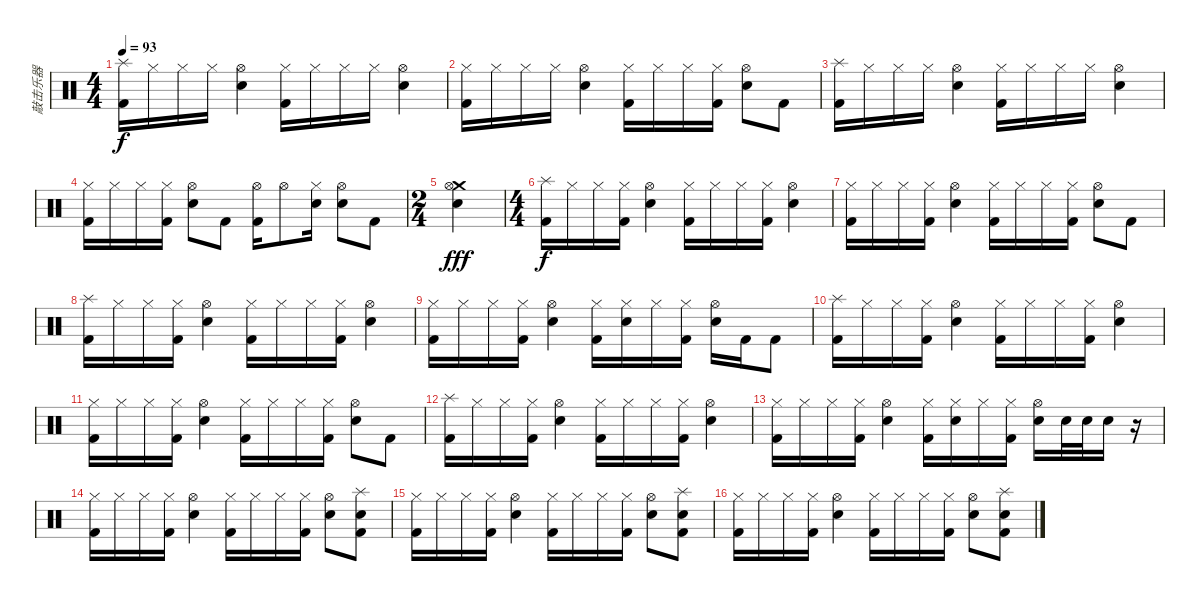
\track ("敲击乐器" "敲击乐器") {instrument percussion}
\staff {score}
\articulation defaults
\ts (4 4)
\tempo 93
\clef neutral
\ks c
("Splash (hit)" "Kick (hit) 2").16{dy f} "Hi-Hat (closed)".16 "Hi-Hat (closed)".16 "Hi-Hat (closed)".16 ("Hi-Hat (open)" "Metronome (bell)").4 ("Hi-Hat (closed)" "Kick (hit) 2").16 "Hi-Hat (closed)".16 "Hi-Hat (closed)".16 "Hi-Hat (closed)".16 ("Hi-Hat (open)" "Metronome (bell)").4 |
("Hi-Hat (closed)" "Kick (hit) 2").16 "Hi-Hat (closed)".16 "Hi-Hat (closed)".16 "Hi-Hat (closed)".16 ("Hi-Hat (open)" "Metronome (bell)").4 ("Hi-Hat (closed)" "Kick (hit) 2").16 "Hi-Hat (closed)".16 "Hi-Hat (closed)".16 ("Hi-Hat (closed)" "Kick (hit) 2").16 ("Hi-Hat (open)" "Metronome (bell)").8 "Kick (hit) 2".8 |
("Splash (hit)" "Kick (hit) 2").16 "Hi-Hat (closed)".16 "Hi-Hat (closed)".16 "Hi-Hat (closed)".16 ("Hi-Hat (open)" "Metronome (bell)").4 ("Hi-Hat (closed)" "Kick (hit) 2").16 "Hi-Hat (closed)".16 "Hi-Hat (closed)".16 "Hi-Hat (closed)".16 ("Hi-Hat (open)" "Metronome (bell)").4 |
("Hi-Hat (closed)" "Kick (hit) 2").16 "Hi-Hat (closed)".16 "Hi-Hat (closed)".16 ("Hi-Hat (closed)" "Kick (hit) 2").16 ("Hi-Hat (open)" "Metronome (bell)").8 "Kick (hit) 2".8 ("Hi-Hat (open)" "Kick (hit) 2").16 "Hi-Hat (open)".8 ("Hi-Hat (closed)" "Metronome (bell)").16 ("Hi-Hat (open)" "Metronome (bell)").8 "Kick (hit) 2".8 |
\ts (2 4)
("Crash medium (hit)" "Metronome (bell)" "Hi-Hat (open)").2{dy fff} |
\ts (4 4)
("Splash (hit)" "Kick (hit) 2").16{dy f} "Hi-Hat (closed)".16 "Hi-Hat (closed)".16 ("Hi-Hat (closed)" "Kick (hit) 2").16 ("Hi-Hat (open)" "Metronome (bell)").4 ("Hi-Hat (closed)" "Kick (hit) 2").16 "Hi-Hat (closed)".16 "Hi-Hat (closed)".16 ("Hi-Hat (closed)" "Kick (hit) 2").16 ("Hi-Hat (open)" "Metronome (bell)").4 |
("Hi-Hat (closed)" "Kick (hit) 2").16 "Hi-Hat (closed)".16 "Hi-Hat (closed)".16 ("Hi-Hat (closed)" "Kick (hit) 2").16 ("Hi-Hat (open)" "Metronome (bell)").4 ("Hi-Hat (closed)" "Kick (hit) 2").16 "Hi-Hat (closed)".16 "Hi-Hat (closed)".16 ("Hi-Hat (closed)" "Kick (hit) 2").16 ("Hi-Hat (open)" "Metronome (bell)").8 "Kick (hit) 2".8 |
("Splash (hit)" "Kick (hit) 2").16 "Hi-Hat (closed)".16 "Hi-Hat (closed)".16 ("Hi-Hat (closed)" "Kick (hit) 2").16 ("Hi-Hat (open)" "Metronome (bell)").4 ("Hi-Hat (closed)" "Kick (hit) 2").16 "Hi-Hat (closed)".16 "Hi-Hat (closed)".16 ("Hi-Hat (closed)" "Kick (hit) 2").16 ("Hi-Hat (open)" "Metronome (bell)").4 |
("Hi-Hat (closed)" "Kick (hit) 2").16 "Hi-Hat (closed)".16 "Hi-Hat (closed)".16 ("Hi-Hat (closed)" "Kick (hit) 2").16 ("Hi-Hat (open)" "Metronome (bell)").4 ("Hi-Hat (closed)" "Kick (hit) 2").16 ("Hi-Hat (closed)" "Metronome (bell)").16 "Hi-Hat (closed)".16 ("Hi-Hat (closed)" "Kick (hit) 2").16 ("Hi-Hat (open)" "Metronome (bell)").16 "Kick (hit) 2".16 "Kick (hit) 2".8 |
("Splash (hit)" "Kick (hit) 2").16 "Hi-Hat (closed)".16 "Hi-Hat (closed)".16 ("Hi-Hat (closed)" "Kick (hit) 2").16 ("Hi-Hat (open)" "Metronome (bell)").4 ("Hi-Hat (closed)" "Kick (hit) 2").16 "Hi-Hat (closed)".16 "Hi-Hat (closed)".16 ("Hi-Hat (closed)" "Kick (hit) 2").16 ("Hi-Hat (open)" "Metronome (bell)").4 |
("Hi-Hat (closed)" "Kick (hit) 2").16 "Hi-Hat (closed)".16 "Hi-Hat (closed)".16 ("Hi-Hat (closed)" "Kick (hit) 2").16 ("Hi-Hat (open)" "Metronome (bell)").4 ("Hi-Hat (closed)" "Kick (hit) 2").16 "Hi-Hat (closed)".16 "Hi-Hat (closed)".16 ("Hi-Hat (closed)" "Kick (hit) 2").16 ("Hi-Hat (open)" "Metronome (bell)").8 "Kick (hit) 2".8 |
("Splash (hit)" "Kick (hit) 2").16 "Hi-Hat (closed)".16 "Hi-Hat (closed)".16 ("Hi-Hat (closed)" "Kick (hit) 2").16 ("Hi-Hat (open)" "Metronome (bell)").4 ("Hi-Hat (closed)" "Kick (hit) 2").16 "Hi-Hat (closed)".16 "Hi-Hat (closed)".16 ("Hi-Hat (closed)" "Kick (hit) 2").16 ("Hi-Hat (open)" "Metronome (bell)").4 |
("Hi-Hat (closed)" "Kick (hit) 2").16 "Hi-Hat (closed)".16 "Hi-Hat (closed)".16 ("Hi-Hat (closed)" "Kick (hit) 2").16 ("Hi-Hat (open)" "Metronome (bell)").4 ("Hi-Hat (closed)" "Kick (hit) 2").16 ("Hi-Hat (closed)" "Metronome (bell)").16 "Hi-Hat (closed)".16 ("Hi-Hat (closed)" "Kick (hit) 2").16 ("Hi-Hat (open)" "Metronome (bell)").16 "Metronome (bell)".32 "Metronome (bell)".32 "Metronome (bell)".16 r.16 |
("Hi-Hat (closed)" "Kick (hit) 2").16 "Hi-Hat (closed)".16 "Hi-Hat (closed)".16 ("Hi-Hat (closed)" "Kick (hit) 2").16 ("Hi-Hat (open)" "Metronome (bell)").4 ("Hi-Hat (closed)" "Kick (hit) 2").16 "Hi-Hat (closed)".16 "Hi-Hat (closed)".16 ("Hi-Hat (closed)" "Kick (hit) 2").16 ("Hi-Hat (open)" "Metronome (bell)").8 ("Splash (hit)" "Metronome (bell)" "Kick (hit) 2").8 |
("Hi-Hat (closed)" "Kick (hit) 2").16 "Hi-Hat (closed)".16 "Hi-Hat (closed)".16 ("Hi-Hat (closed)" "Kick (hit) 2").16 ("Hi-Hat (open)" "Metronome (bell)").4 ("Hi-Hat (closed)" "Kick (hit) 2").16 "Hi-Hat (closed)".16 "Hi-Hat (closed)".16 ("Hi-Hat (closed)" "Kick (hit) 2").16 ("Hi-Hat (open)" "Metronome (bell)").8 ("Splash (hit)" "Metronome (bell)" "Kick (hit) 2").8 |
("Hi-Hat (closed)" "Kick (hit) 2").16 "Hi-Hat (closed)".16 "Hi-Hat (closed)".16 ("Hi-Hat (closed)" "Kick (hit) 2").16 ("Hi-Hat (open)" "Metronome (bell)").4 ("Hi-Hat (closed)" "Kick (hit) 2").16 "Hi-Hat (closed)".16 "Hi-Hat (closed)".16 ("Hi-Hat (closed)" "Kick (hit) 2").16 ("Hi-Hat (open)" "Metronome (bell)").8 ("Splash (hit)" "Metronome (bell)" "Kick (hit) 2").8
